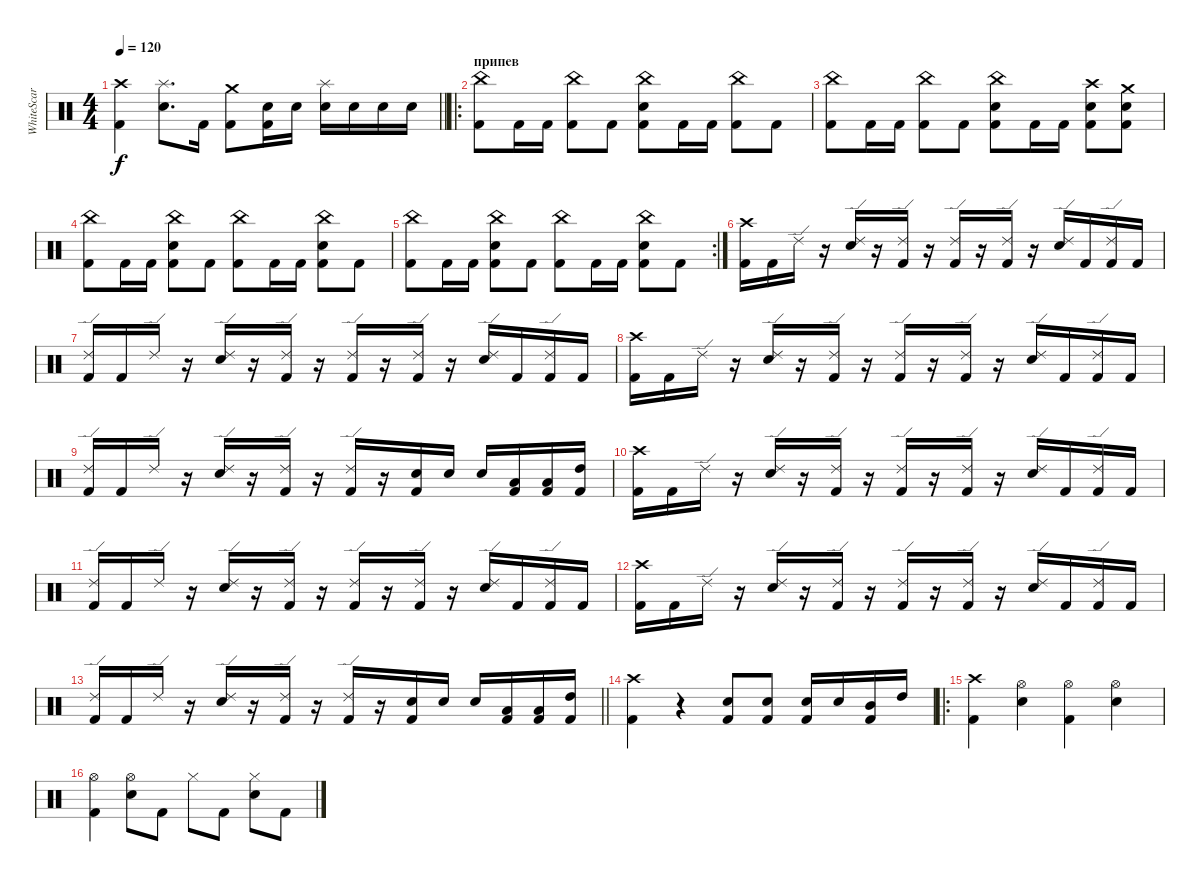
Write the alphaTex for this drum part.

\track ("WhiteScar" "WhiteScar") {instrument percussion}
\staff {score}
\articulation defaults
\ts (4 4)
\tempo 120
\clef neutral
\barLineRight lightlight
\ks c
("Crash high (hit)" "Kick (hit) 2").4{dy f} ("Splash (hit)" "Snare (hit) 2").8{d} "Kick (hit) 2".16 ("Crash medium (hit)" "Kick (hit) 2").8 ("Snare (hit) 2" "Kick (hit) 2").16 "Snare (hit) 2".16 ("Splash (hit)" "Snare (hit) 2").16 "Snare (hit) 2".16 "Snare (hit) 2".16 "Snare (hit) 2".16 |
\ro
\section ("" "припев")
("China (hit)" "Kick (hit) 2").8 "Kick (hit) 2".16 "Kick (hit) 2".16 ("China (hit)" "Kick (hit) 2").8 "Kick (hit) 2".8 ("Snare (hit) 2" "China (hit)" "Kick (hit) 2").8 "Kick (hit) 2".16 "Kick (hit) 2".16 ("China (hit)" "Kick (hit) 2").8 "Kick (hit) 2".8 |
("China (hit)" "Kick (hit) 2").8 "Kick (hit) 2".16 "Kick (hit) 2".16 ("China (hit)" "Kick (hit) 2").8 "Kick (hit) 2".8 ("Snare (hit) 2" "China (hit)" "Kick (hit) 2").8 "Kick (hit) 2".16 "Kick (hit) 2".16 ("Snare (hit) 2" "Crash high (hit)" "Kick (hit) 2").8 ("Snare (hit) 2" "Crash medium (hit)" "Kick (hit) 2").8 |
("China (hit)" "Kick (hit) 2").8 "Kick (hit) 2".16 "Kick (hit) 2".16 ("Snare (hit) 2" "China (hit)" "Kick (hit) 2").8 "Kick (hit) 2".8 ("China (hit)" "Kick (hit) 2").8 "Kick (hit) 2".16 "Kick (hit) 2".16 ("Snare (hit) 2" "China (hit)" "Kick (hit) 2").8 "Kick (hit) 2".8 |
\rc 2
("China (hit)" "Kick (hit) 2").8 "Kick (hit) 2".16 "Kick (hit) 2".16 ("Snare (hit) 2" "China (hit)" "Kick (hit) 2").8 "Kick (hit) 2".8 ("China (hit)" "Kick (hit) 2").8 "Kick (hit) 2".16 "Kick (hit) 2".16 ("Snare (hit) 2" "China (hit)" "Kick (hit) 2").8 "Kick (hit) 2".8 |
("Crash high (hit)" "Kick (hit) 2").16 "Kick (hit) 2".16 "Ride (edge) 2".16 r.16 ("Ride (edge) 2" "Snare (hit) 2").16 r.16 ("Ride (edge) 2" "Kick (hit) 2").16 r.16 ("Ride (edge) 2" "Kick (hit) 2").16 r.16 ("Ride (edge) 2" "Kick (hit) 2").16 r.16 ("Ride (edge) 2" "Snare (hit) 2").16 "Kick (hit) 2".16 ("Ride (edge) 2" "Kick (hit) 2").16 "Kick (hit) 2".16 |
("Ride (edge) 2" "Kick (hit) 2").16 "Kick (hit) 2".16 "Ride (edge) 2".16 r.16 ("Ride (edge) 2" "Snare (hit) 2").16 r.16 ("Ride (edge) 2" "Kick (hit) 2").16 r.16 ("Ride (edge) 2" "Kick (hit) 2").16 r.16 ("Ride (edge) 2" "Kick (hit) 2").16 r.16 ("Ride (edge) 2" "Snare (hit) 2").16 "Kick (hit) 2".16 ("Ride (edge) 2" "Kick (hit) 2").16 "Kick (hit) 2".16 |
("Crash high (hit)" "Kick (hit) 2").16 "Kick (hit) 2".16 "Ride (edge) 2".16 r.16 ("Ride (edge) 2" "Snare (hit) 2").16 r.16 ("Ride (edge) 2" "Kick (hit) 2").16 r.16 ("Ride (edge) 2" "Kick (hit) 2").16 r.16 ("Ride (edge) 2" "Kick (hit) 2").16 r.16 ("Ride (edge) 2" "Snare (hit) 2").16 "Kick (hit) 2".16 ("Ride (edge) 2" "Kick (hit) 2").16 "Kick (hit) 2".16 |
("Ride (edge) 2" "Kick (hit) 2").16 "Kick (hit) 2".16 "Ride (edge) 2".16 r.16 ("Ride (edge) 2" "Snare (hit) 2").16 r.16 ("Ride (edge) 2" "Kick (hit) 2").16 r.16 ("Ride (edge) 2" "Kick (hit) 2").16 r.16 ("Snare (hit) 2" "Kick (hit) 2").16 "Snare (hit) 2".16 "Snare (hit) 2".16 ("Low Tom (hit)" "Kick (hit) 2").16 ("Low Tom (hit)" "Kick (hit) 2").16 ("High Tom (hit)" "Kick (hit) 2").16 |
("Crash high (hit)" "Kick (hit) 2").16 "Kick (hit) 2".16 "Ride (edge) 2".16 r.16 ("Ride (edge) 2" "Snare (hit) 2").16 r.16 ("Ride (edge) 2" "Kick (hit) 2").16 r.16 ("Ride (edge) 2" "Kick (hit) 2").16 r.16 ("Ride (edge) 2" "Kick (hit) 2").16 r.16 ("Ride (edge) 2" "Snare (hit) 2").16 "Kick (hit) 2".16 ("Ride (edge) 2" "Kick (hit) 2").16 "Kick (hit) 2".16 |
("Ride (edge) 2" "Kick (hit) 2").16 "Kick (hit) 2".16 "Ride (edge) 2".16 r.16 ("Ride (edge) 2" "Snare (hit) 2").16 r.16 ("Ride (edge) 2" "Kick (hit) 2").16 r.16 ("Ride (edge) 2" "Kick (hit) 2").16 r.16 ("Ride (edge) 2" "Kick (hit) 2").16 r.16 ("Ride (edge) 2" "Snare (hit) 2").16 "Kick (hit) 2".16 ("Ride (edge) 2" "Kick (hit) 2").16 "Kick (hit) 2".16 |
("Crash high (hit)" "Kick (hit) 2").16 "Kick (hit) 2".16 "Ride (edge) 2".16 r.16 ("Ride (edge) 2" "Snare (hit) 2").16 r.16 ("Ride (edge) 2" "Kick (hit) 2").16 r.16 ("Ride (edge) 2" "Kick (hit) 2").16 r.16 ("Ride (edge) 2" "Kick (hit) 2").16 r.16 ("Ride (edge) 2" "Snare (hit) 2").16 "Kick (hit) 2".16 ("Ride (edge) 2" "Kick (hit) 2").16 "Kick (hit) 2".16 |
\barLineRight lightlight
("Ride (edge) 2" "Kick (hit) 2").16 "Kick (hit) 2".16 "Ride (edge) 2".16 r.16 ("Ride (edge) 2" "Snare (hit) 2").16 r.16 ("Ride (edge) 2" "Kick (hit) 2").16 r.16 ("Ride (edge) 2" "Kick (hit) 2").16 r.16 ("Snare (hit) 2" "Kick (hit) 2").16 "Snare (hit) 2".16 "Snare (hit) 2".16 ("Low Tom (hit)" "Kick (hit) 2").16 ("Low Tom (hit)" "Kick (hit) 2").16 ("High Tom (hit)" "Kick (hit) 2").16 |
("Crash high (hit)" "Kick (hit) 2").4 r.4 ("Snare (hit) 2" "Kick (hit) 2").8 ("Snare (hit) 2" "Kick (hit) 2").8 ("Snare (hit) 2" "Kick (hit) 2").16 "Snare (hit) 2".16 ("Mid Tom (hit)" "Kick (hit) 2").16 "High Tom (hit)".16 |
\ro
("Crash high (hit)" "Kick (hit) 2").4 ("Hi-Hat (open)" "Snare (hit) 2").4 ("Hi-Hat (open)" "Kick (hit) 2").4 ("Hi-Hat (open)" "Snare (hit) 2").4 |
("Hi-Hat (open)" "Kick (hit) 2").4 ("Hi-Hat (open)" "Snare (hit) 2").8 "Kick (hit) 2".8 "Hi-Hat (closed)".8 "Kick (hit) 2".8 ("Hi-Hat (closed)" "Snare (hit) 2").8 "Kick (hit) 2".8
